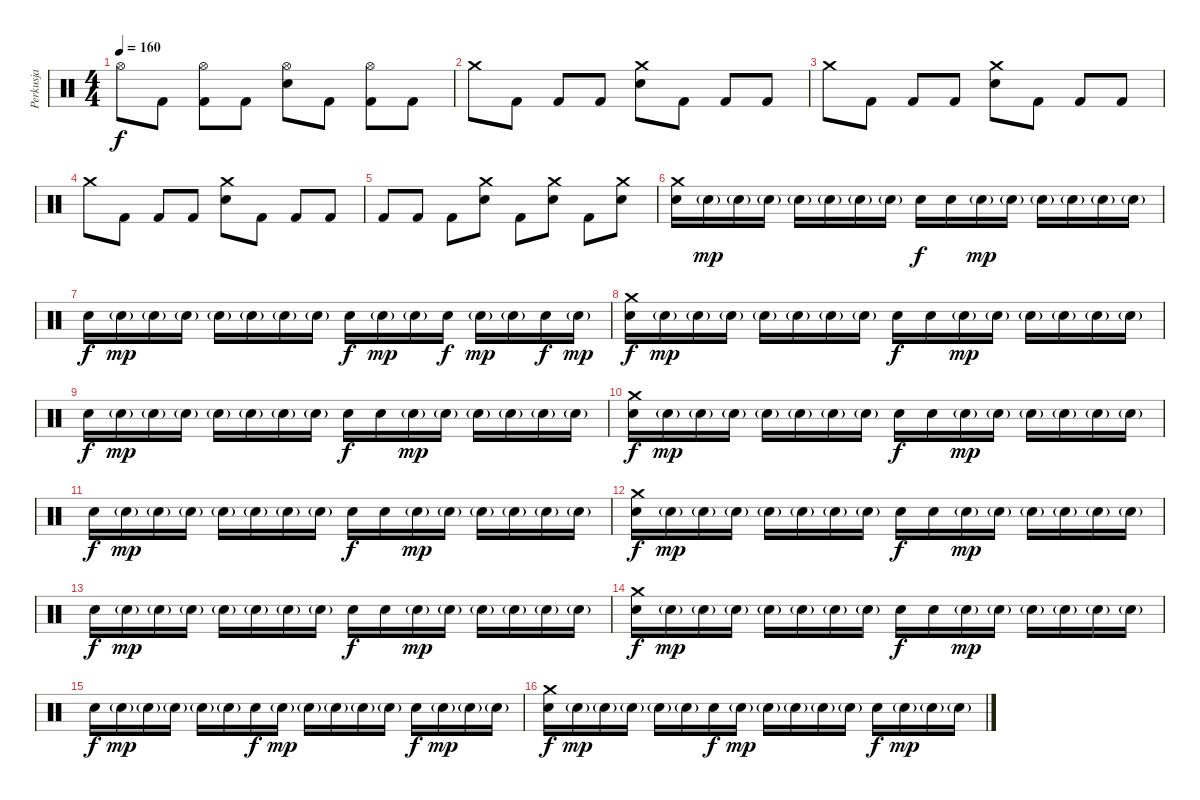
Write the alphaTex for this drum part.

\track ("Perkusja" "Perkusja") {instrument percussion}
\staff {score}
\articulation defaults
\ts (4 4)
\tempo 160
\clef neutral
\ks c "Hi-Hat (open)".8{dy f} "Kick (hit) 2".8
("Hi-Hat (open)" "Kick (hit) 2").8 "Kick (hit) 2".8 ("Hi-Hat (open)" "Electric Snare (hit)").8 "Kick (hit) 2".8 ("Hi-Hat (open)" "Kick (hit) 2").8 "Kick (hit) 2".8 |
"Crash medium (hit)".8 "Kick (hit) 2".8 "Kick (hit) 2".8 "Kick (hit) 2".8 ("Crash medium (hit)" "Electric Snare (hit)").8 "Kick (hit) 2".8 "Kick (hit) 2".8 "Kick (hit) 2".8 |
"Crash medium (hit)".8 "Kick (hit) 2".8 "Kick (hit) 2".8 "Kick (hit) 2".8 ("Crash medium (hit)" "Electric Snare (hit)").8 "Kick (hit) 2".8 "Kick (hit) 2".8 "Kick (hit) 2".8 |
"Crash medium (hit)".8 "Kick (hit) 2".8 "Kick (hit) 2".8 "Kick (hit) 2".8 ("Crash medium (hit)" "Electric Snare (hit)").8 "Kick (hit) 2".8 "Kick (hit) 2".8 "Kick (hit) 2".8 |
"Kick (hit) 2".8 "Kick (hit) 2".8 "Kick (hit) 2".8 ("Crash medium (hit)" "Electric Snare (hit)").8 "Kick (hit) 2".8 ("Crash medium (hit)" "Electric Snare (hit)").8 "Kick (hit) 2".8 ("Crash medium (hit)" "Electric Snare (hit)").8 |
("Crash medium (hit)" "Electric Snare (hit)").16 "Electric Snare (hit)"{g}.16{dy mp} "Electric Snare (hit)"{g}.16 "Electric Snare (hit)"{g}.16 "Electric Snare (hit)"{g}.16 "Electric Snare (hit)"{g}.16 "Electric Snare (hit)"{g}.16 "Electric Snare (hit)"{g}.16 "Electric Snare (hit)".16{dy f} "Electric Snare (hit)".16 "Electric Snare (hit)"{g}.16{dy mp} "Electric Snare (hit)"{g}.16 "Electric Snare (hit)"{g}.16 "Electric Snare (hit)"{g}.16 "Electric Snare (hit)"{g}.16 "Electric Snare (hit)"{g}.16 |
"Electric Snare (hit)".16{dy f} "Electric Snare (hit)"{g}.16{dy mp} "Electric Snare (hit)"{g}.16 "Electric Snare (hit)"{g}.16 "Electric Snare (hit)"{g}.16 "Electric Snare (hit)"{g}.16 "Electric Snare (hit)"{g}.16 "Electric Snare (hit)"{g}.16 "Electric Snare (hit)".16{dy f} "Electric Snare (hit)"{g}.16{dy mp} "Electric Snare (hit)"{g}.16 "Electric Snare (hit)".16{dy f} "Electric Snare (hit)"{g}.16{dy mp} "Electric Snare (hit)"{g}.16 "Electric Snare (hit)".16{dy f} "Electric Snare (hit)"{g}.16{dy mp} |
("Crash medium (hit)" "Electric Snare (hit)").16{dy f} "Electric Snare (hit)"{g}.16{dy mp} "Electric Snare (hit)"{g}.16 "Electric Snare (hit)"{g}.16 "Electric Snare (hit)"{g}.16 "Electric Snare (hit)"{g}.16 "Electric Snare (hit)"{g}.16 "Electric Snare (hit)"{g}.16 "Electric Snare (hit)".16{dy f} "Electric Snare (hit)".16 "Electric Snare (hit)"{g}.16{dy mp} "Electric Snare (hit)"{g}.16 "Electric Snare (hit)"{g}.16 "Electric Snare (hit)"{g}.16 "Electric Snare (hit)"{g}.16 "Electric Snare (hit)"{g}.16 |
"Electric Snare (hit)".16{dy f} "Electric Snare (hit)"{g}.16{dy mp} "Electric Snare (hit)"{g}.16 "Electric Snare (hit)"{g}.16 "Electric Snare (hit)"{g}.16 "Electric Snare (hit)"{g}.16 "Electric Snare (hit)"{g}.16 "Electric Snare (hit)"{g}.16 "Electric Snare (hit)".16{dy f} "Electric Snare (hit)".16 "Electric Snare (hit)"{g}.16{dy mp} "Electric Snare (hit)"{g}.16 "Electric Snare (hit)"{g}.16 "Electric Snare (hit)"{g}.16 "Electric Snare (hit)"{g}.16 "Electric Snare (hit)"{g}.16 |
("Crash medium (hit)" "Electric Snare (hit)").16{dy f} "Electric Snare (hit)"{g}.16{dy mp} "Electric Snare (hit)"{g}.16 "Electric Snare (hit)"{g}.16 "Electric Snare (hit)"{g}.16 "Electric Snare (hit)"{g}.16 "Electric Snare (hit)"{g}.16 "Electric Snare (hit)"{g}.16 "Electric Snare (hit)".16{dy f} "Electric Snare (hit)".16 "Electric Snare (hit)"{g}.16{dy mp} "Electric Snare (hit)"{g}.16 "Electric Snare (hit)"{g}.16 "Electric Snare (hit)"{g}.16 "Electric Snare (hit)"{g}.16 "Electric Snare (hit)"{g}.16 |
"Electric Snare (hit)".16{dy f} "Electric Snare (hit)"{g}.16{dy mp} "Electric Snare (hit)"{g}.16 "Electric Snare (hit)"{g}.16 "Electric Snare (hit)"{g}.16 "Electric Snare (hit)"{g}.16 "Electric Snare (hit)"{g}.16 "Electric Snare (hit)"{g}.16 "Electric Snare (hit)".16{dy f} "Electric Snare (hit)".16 "Electric Snare (hit)"{g}.16{dy mp} "Electric Snare (hit)"{g}.16 "Electric Snare (hit)"{g}.16 "Electric Snare (hit)"{g}.16 "Electric Snare (hit)"{g}.16 "Electric Snare (hit)"{g}.16 |
("Crash medium (hit)" "Electric Snare (hit)").16{dy f} "Electric Snare (hit)"{g}.16{dy mp} "Electric Snare (hit)"{g}.16 "Electric Snare (hit)"{g}.16 "Electric Snare (hit)"{g}.16 "Electric Snare (hit)"{g}.16 "Electric Snare (hit)"{g}.16 "Electric Snare (hit)"{g}.16 "Electric Snare (hit)".16{dy f} "Electric Snare (hit)".16 "Electric Snare (hit)"{g}.16{dy mp} "Electric Snare (hit)"{g}.16 "Electric Snare (hit)"{g}.16 "Electric Snare (hit)"{g}.16 "Electric Snare (hit)"{g}.16 "Electric Snare (hit)"{g}.16 |
"Electric Snare (hit)".16{dy f} "Electric Snare (hit)"{g}.16{dy mp} "Electric Snare (hit)"{g}.16 "Electric Snare (hit)"{g}.16 "Electric Snare (hit)"{g}.16 "Electric Snare (hit)"{g}.16 "Electric Snare (hit)"{g}.16 "Electric Snare (hit)"{g}.16 "Electric Snare (hit)".16{dy f} "Electric Snare (hit)".16 "Electric Snare (hit)"{g}.16{dy mp} "Electric Snare (hit)"{g}.16 "Electric Snare (hit)"{g}.16 "Electric Snare (hit)"{g}.16 "Electric Snare (hit)"{g}.16 "Electric Snare (hit)"{g}.16 |
("Crash medium (hit)" "Electric Snare (hit)").16{dy f} "Electric Snare (hit)"{g}.16{dy mp} "Electric Snare (hit)"{g}.16 "Electric Snare (hit)"{g}.16 "Electric Snare (hit)"{g}.16 "Electric Snare (hit)"{g}.16 "Electric Snare (hit)"{g}.16 "Electric Snare (hit)"{g}.16 "Electric Snare (hit)".16{dy f} "Electric Snare (hit)".16 "Electric Snare (hit)"{g}.16{dy mp} "Electric Snare (hit)"{g}.16 "Electric Snare (hit)"{g}.16 "Electric Snare (hit)"{g}.16 "Electric Snare (hit)"{g}.16 "Electric Snare (hit)"{g}.16 |
"Electric Snare (hit)".16{dy f} "Electric Snare (hit)"{g}.16{dy mp} "Electric Snare (hit)"{g}.16 "Electric Snare (hit)"{g}.16 "Electric Snare (hit)"{g}.16 "Electric Snare (hit)"{g}.16 "Electric Snare (hit)".16{dy f} "Electric Snare (hit)"{g}.16{dy mp} "Electric Snare (hit)"{g}.16 "Electric Snare (hit)"{g}.16 "Electric Snare (hit)"{g}.16 "Electric Snare (hit)"{g}.16 "Electric Snare (hit)".16{dy f} "Electric Snare (hit)"{g}.16{dy mp} "Electric Snare (hit)"{g}.16 "Electric Snare (hit)"{g}.16 |
("Crash medium (hit)" "Electric Snare (hit)").16{dy f} "Electric Snare (hit)"{g}.16{dy mp} "Electric Snare (hit)"{g}.16 "Electric Snare (hit)"{g}.16 "Electric Snare (hit)"{g}.16 "Electric Snare (hit)"{g}.16 "Electric Snare (hit)".16{dy f} "Electric Snare (hit)"{g}.16{dy mp} "Electric Snare (hit)"{g}.16 "Electric Snare (hit)"{g}.16 "Electric Snare (hit)"{g}.16 "Electric Snare (hit)"{g}.16 "Electric Snare (hit)".16{dy f} "Electric Snare (hit)"{g}.16{dy mp} "Electric Snare (hit)"{g}.16 "Electric Snare (hit)"{g}.16
